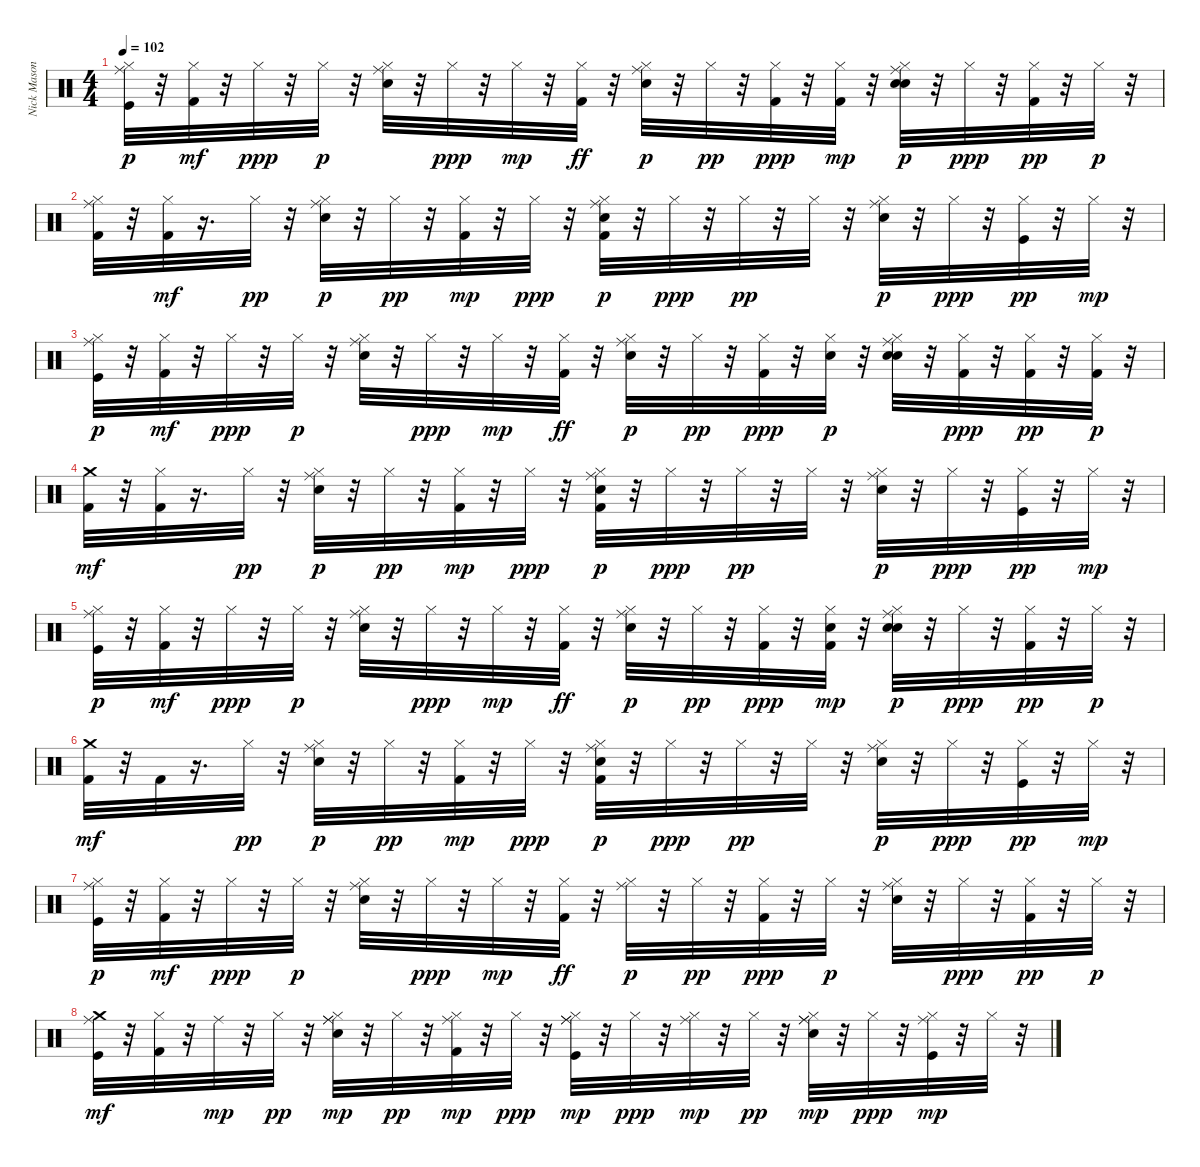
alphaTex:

\track ("Nick Mason / Gary Wallis" "Nick Mason") {instrument percussion}
\staff {score}
\articulation defaults
\ts (4 4)
\tempo 102
\clef neutral
\ks c
("Kick (hit)" "Hi-Hat (closed)" "Ride (middle)").32{dy p} r.32 ("Hi-Hat (closed)" "Kick (hit) 2").32{dy mf} r.32 "Hi-Hat (closed)".32{dy ppp} r.32 "Hi-Hat (closed)".32{dy p} r.32 ("Snare (hit) 2" "Hi-Hat (closed)" "Ride (middle)").32 r.32 "Hi-Hat (closed)".32{dy ppp} r.32 "Hi-Hat (closed)".32{dy mp} r.32 ("Hi-Hat (closed)" "Kick (hit) 2").32{dy ff} r.32 ("Electric Snare (hit)" "Hi-Hat (closed)" "Ride (middle)").32{dy p} r.32 "Hi-Hat (closed)".32{dy pp} r.32 ("Hi-Hat (closed)" "Kick (hit) 2").32{dy ppp} r.32 ("Hi-Hat (closed)" "Kick (hit) 2").32{dy mp} r.32 ("Snare (hit) 2" "Electric Snare (hit)" "Hi-Hat (closed)" "Ride (middle)").32{dy p} r.32 "Hi-Hat (closed)".32{dy ppp} r.32 ("Kick (hit) 2" "Hi-Hat (closed)").32{dy pp} r.32 "Hi-Hat (closed)".32{dy p} r.32 |
("Kick (hit) 2" "Hi-Hat (closed)" "Ride (middle)").32 r.32 ("Hi-Hat (closed)" "Kick (hit) 2").32{dy mf} r.16{d} "Hi-Hat (closed)".32{dy pp} r.32 ("Snare (hit) 2" "Hi-Hat (closed)" "Ride (middle)").32{dy p} r.32 "Hi-Hat (closed)".32{dy pp} r.32 ("Kick (hit) 2" "Hi-Hat (closed)").32{dy mp} r.32 "Hi-Hat (closed)".32{dy ppp} r.32 ("Kick (hit) 2" "Electric Snare (hit)" "Hi-Hat (closed)" "Ride (middle)").32{dy p} r.32 "Hi-Hat (closed)".32{dy ppp} r.32 "Hi-Hat (closed)".32{dy pp} r.32 "Hi-Hat (closed)".32 r.32 ("Snare (hit) 2" "Hi-Hat (closed)" "Ride (middle)").32{dy p} r.32 "Hi-Hat (closed)".32{dy ppp} r.32 ("Kick (hit)" "Hi-Hat (closed)").32{dy pp} r.32 "Hi-Hat (closed)".32{dy mp} r.32 |
("Kick (hit)" "Hi-Hat (closed)" "Ride (middle)").32{dy p} r.32 ("Hi-Hat (closed)" "Kick (hit) 2").32{dy mf} r.32 "Hi-Hat (closed)".32{dy ppp} r.32 "Hi-Hat (closed)".32{dy p} r.32 ("Snare (hit) 2" "Hi-Hat (closed)" "Ride (middle)").32 r.32 "Hi-Hat (closed)".32{dy ppp} r.32 "Hi-Hat (closed)".32{dy mp} r.32 ("Hi-Hat (closed)" "Kick (hit) 2").32{dy ff} r.32 ("Electric Snare (hit)" "Hi-Hat (closed)" "Ride (middle)").32{dy p} r.32 "Hi-Hat (closed)".32{dy pp} r.32 ("Hi-Hat (closed)" "Kick (hit) 2").32{dy ppp} r.32 ("Electric Snare (hit)" "Hi-Hat (closed)").32{dy p} r.32 ("Snare (hit) 2" "Electric Snare (hit)" "Hi-Hat (closed)" "Ride (middle)").32 r.32 ("Kick (hit) 2" "Hi-Hat (closed)").32{dy ppp} r.32 ("Kick (hit) 2" "Hi-Hat (closed)").32{dy pp} r.32 ("Kick (hit) 2" "Hi-Hat (closed)").32{dy p} r.32 |
("Kick (hit) 2" "Crash medium (hit)").32{dy mf} r.32 ("Hi-Hat (closed)" "Kick (hit) 2").32 r.16{d} "Hi-Hat (closed)".32{dy pp} r.32 ("Snare (hit) 2" "Hi-Hat (closed)" "Ride (middle)").32{dy p} r.32 "Hi-Hat (closed)".32{dy pp} r.32 ("Kick (hit) 2" "Hi-Hat (closed)").32{dy mp} r.32 "Hi-Hat (closed)".32{dy ppp} r.32 ("Kick (hit) 2" "Electric Snare (hit)" "Hi-Hat (closed)" "Ride (middle)").32{dy p} r.32 "Hi-Hat (closed)".32{dy ppp} r.32 "Hi-Hat (closed)".32{dy pp} r.32 "Hi-Hat (closed)".32 r.32 ("Snare (hit) 2" "Hi-Hat (closed)" "Ride (middle)").32{dy p} r.32 "Hi-Hat (closed)".32{dy ppp} r.32 ("Kick (hit)" "Hi-Hat (closed)").32{dy pp} r.32 "Hi-Hat (closed)".32{dy mp} r.32 |
("Kick (hit)" "Hi-Hat (closed)" "Ride (middle)").32{dy p} r.32 ("Hi-Hat (closed)" "Kick (hit) 2").32{dy mf} r.32 "Hi-Hat (closed)".32{dy ppp} r.32 "Hi-Hat (closed)".32{dy p} r.32 ("Snare (hit) 2" "Hi-Hat (closed)" "Ride (middle)").32 r.32 "Hi-Hat (closed)".32{dy ppp} r.32 "Hi-Hat (closed)".32{dy mp} r.32 ("Hi-Hat (closed)" "Kick (hit) 2").32{dy ff} r.32 ("Electric Snare (hit)" "Hi-Hat (closed)" "Ride (middle)").32{dy p} r.32 "Hi-Hat (closed)".32{dy pp} r.32 ("Hi-Hat (closed)" "Kick (hit) 2").32{dy ppp} r.32 ("Electric Snare (hit)" "Hi-Hat (closed)" "Kick (hit) 2").32{dy mp} r.32 ("Snare (hit) 2" "Electric Snare (hit)" "Hi-Hat (closed)" "Ride (middle)").32{dy p} r.32 "Hi-Hat (closed)".32{dy ppp} r.32 ("Kick (hit) 2" "Hi-Hat (closed)").32{dy pp} r.32 "Hi-Hat (closed)".32{dy p} r.32 |
("Kick (hit) 2" "Crash medium (hit)").32{dy mf} r.32 "Kick (hit) 2".32 r.16{d} "Hi-Hat (closed)".32{dy pp} r.32 ("Snare (hit) 2" "Hi-Hat (closed)" "Ride (middle)").32{dy p} r.32 "Hi-Hat (closed)".32{dy pp} r.32 ("Kick (hit) 2" "Hi-Hat (closed)").32{dy mp} r.32 "Hi-Hat (closed)".32{dy ppp} r.32 ("Kick (hit) 2" "Electric Snare (hit)" "Hi-Hat (closed)" "Ride (middle)").32{dy p} r.32 "Hi-Hat (closed)".32{dy ppp} r.32 "Hi-Hat (closed)".32{dy pp} r.32 "Hi-Hat (closed)".32 r.32 ("Snare (hit) 2" "Hi-Hat (closed)" "Ride (middle)").32{dy p} r.32 "Hi-Hat (closed)".32{dy ppp} r.32 ("Kick (hit)" "Hi-Hat (closed)").32{dy pp} r.32 "Hi-Hat (closed)".32{dy mp} r.32 |
("Kick (hit)" "Hi-Hat (closed)" "Ride (middle)").32{dy p} r.32 ("Hi-Hat (closed)" "Kick (hit) 2").32{dy mf} r.32 "Hi-Hat (closed)".32{dy ppp} r.32 "Hi-Hat (closed)".32{dy p} r.32 ("Snare (hit) 2" "Hi-Hat (closed)" "Ride (middle)").32 r.32 "Hi-Hat (closed)".32{dy ppp} r.32 "Hi-Hat (closed)".32{dy mp} r.32 ("Hi-Hat (closed)" "Kick (hit) 2").32{dy ff} r.32 ("Hi-Hat (closed)" "Ride (middle)").32{dy p} r.32 "Hi-Hat (closed)".32{dy pp} r.32 ("Hi-Hat (closed)" "Kick (hit) 2").32{dy ppp} r.32 "Hi-Hat (closed)".32{dy p} r.32 ("Snare (hit) 2" "Hi-Hat (closed)" "Ride (middle)").32 r.32 "Hi-Hat (closed)".32{dy ppp} r.32 ("Kick (hit) 2" "Hi-Hat (closed)").32{dy pp} r.32 "Hi-Hat (closed)".32{dy p} r.32 |
("Kick (hit)" "Crash medium (hit)" "Ride (middle)").32{dy mf} r.32 ("Hi-Hat (closed)" "Kick (hit) 2").32 r.32 "Ride (middle)".32{dy mp} r.32 "Hi-Hat (closed)".32{dy pp} r.32 ("Electric Snare (hit)" "Hi-Hat (closed)" "Ride (middle)" "Ride (middle)").32{dy mp} r.32 "Hi-Hat (closed)".32{dy pp} r.32 ("Kick (hit) 2" "Hi-Hat (closed)" "Ride (middle)").32{dy mp} r.32 "Hi-Hat (closed)".32{dy ppp} r.32 ("Kick (hit)" "Hi-Hat (closed)" "Ride (middle)" "Ride (middle)").32{dy mp} r.32 "Hi-Hat (closed)".32{dy ppp} r.32 ("Hi-Hat (closed)" "Ride (middle)").32{dy mp} r.32 "Hi-Hat (closed)".32{dy pp} r.32 ("Electric Snare (hit)" "Hi-Hat (closed)" "Ride (middle)" "Ride (middle)").32{dy mp} r.32 "Hi-Hat (closed)".32{dy ppp} r.32 ("Kick (hit)" "Hi-Hat (closed)" "Ride (middle)").32{dy mp} r.32 "Hi-Hat (closed)".32 r.32
